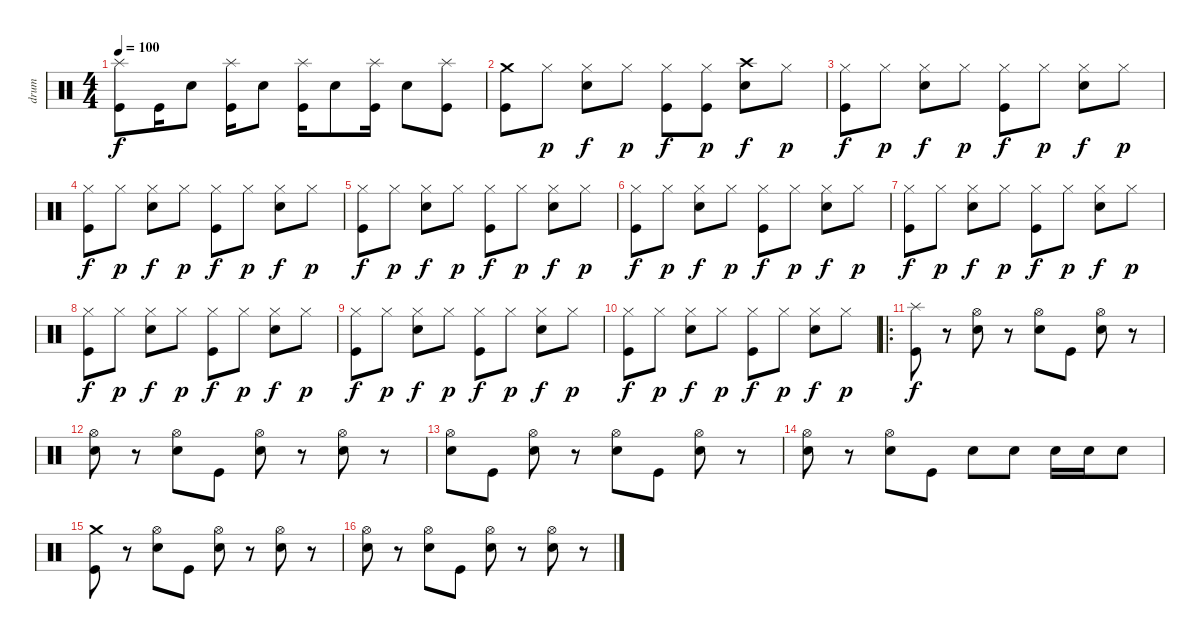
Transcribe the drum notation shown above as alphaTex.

\track ("drum" "drum") {instrument percussion}
\staff {score}
\articulation defaults
\ts (4 4)
\tempo 100
\clef neutral
\ks c
("Kick (hit)" "Splash (hit)").8{dy f} "Kick (hit)".16 "Electric Snare (hit)".8 ("Kick (hit)" "Splash (hit)").16 "Electric Snare (hit)".8 ("Kick (hit)" "Splash (hit)").16 "Electric Snare (hit)".8 ("Kick (hit)" "Splash (hit)").16 "Electric Snare (hit)".8 ("Kick (hit)" "Splash (hit)").8 |
("Kick (hit)" "Crash medium (hit)").8 "Hi-Hat (closed)".8{dy p} ("Electric Snare (hit)" "Hi-Hat (closed)").8{dy f} "Hi-Hat (closed)".8{dy p} ("Kick (hit)" "Hi-Hat (closed)").8{dy f} ("Kick (hit)" "Hi-Hat (closed)").8{dy p} ("Electric Snare (hit)" "Crash high (hit)").8{dy f} "Hi-Hat (closed)".8{dy p} |
("Kick (hit)" "Hi-Hat (closed)").8{dy f} "Hi-Hat (closed)".8{dy p} ("Electric Snare (hit)" "Hi-Hat (closed)").8{dy f} "Hi-Hat (closed)".8{dy p} ("Kick (hit)" "Hi-Hat (closed)").8{dy f} "Hi-Hat (closed)".8{dy p} ("Electric Snare (hit)" "Hi-Hat (closed)").8{dy f} "Hi-Hat (closed)".8{dy p} |
("Kick (hit)" "Hi-Hat (closed)").8{dy f} "Hi-Hat (closed)".8{dy p} ("Electric Snare (hit)" "Hi-Hat (closed)").8{dy f} "Hi-Hat (closed)".8{dy p} ("Kick (hit)" "Hi-Hat (closed)").8{dy f} "Hi-Hat (closed)".8{dy p} ("Electric Snare (hit)" "Hi-Hat (closed)").8{dy f} "Hi-Hat (closed)".8{dy p} |
("Kick (hit)" "Hi-Hat (closed)").8{dy f} "Hi-Hat (closed)".8{dy p} ("Electric Snare (hit)" "Hi-Hat (closed)").8{dy f} "Hi-Hat (closed)".8{dy p} ("Kick (hit)" "Hi-Hat (closed)").8{dy f} "Hi-Hat (closed)".8{dy p} ("Electric Snare (hit)" "Hi-Hat (closed)").8{dy f} "Hi-Hat (closed)".8{dy p} |
("Kick (hit)" "Hi-Hat (closed)").8{dy f} "Hi-Hat (closed)".8{dy p} ("Electric Snare (hit)" "Hi-Hat (closed)").8{dy f} "Hi-Hat (closed)".8{dy p} ("Kick (hit)" "Hi-Hat (closed)").8{dy f} "Hi-Hat (closed)".8{dy p} ("Electric Snare (hit)" "Hi-Hat (closed)").8{dy f} "Hi-Hat (closed)".8{dy p} |
("Kick (hit)" "Hi-Hat (closed)").8{dy f} "Hi-Hat (closed)".8{dy p} ("Electric Snare (hit)" "Hi-Hat (closed)").8{dy f} "Hi-Hat (closed)".8{dy p} ("Kick (hit)" "Hi-Hat (closed)").8{dy f} "Hi-Hat (closed)".8{dy p} ("Electric Snare (hit)" "Hi-Hat (closed)").8{dy f} "Hi-Hat (closed)".8{dy p} |
("Kick (hit)" "Hi-Hat (closed)").8{dy f} "Hi-Hat (closed)".8{dy p} ("Electric Snare (hit)" "Hi-Hat (closed)").8{dy f} "Hi-Hat (closed)".8{dy p} ("Kick (hit)" "Hi-Hat (closed)").8{dy f} "Hi-Hat (closed)".8{dy p} ("Electric Snare (hit)" "Hi-Hat (closed)").8{dy f} "Hi-Hat (closed)".8{dy p} |
("Kick (hit)" "Hi-Hat (closed)").8{dy f} "Hi-Hat (closed)".8{dy p} ("Electric Snare (hit)" "Hi-Hat (closed)").8{dy f} "Hi-Hat (closed)".8{dy p} ("Kick (hit)" "Hi-Hat (closed)").8{dy f} "Hi-Hat (closed)".8{dy p} ("Electric Snare (hit)" "Hi-Hat (closed)").8{dy f} "Hi-Hat (closed)".8{dy p} |
("Kick (hit)" "Hi-Hat (closed)").8{dy f} "Hi-Hat (closed)".8{dy p} ("Electric Snare (hit)" "Hi-Hat (closed)").8{dy f} "Hi-Hat (closed)".8{dy p} ("Kick (hit)" "Hi-Hat (closed)").8{dy f} "Hi-Hat (closed)".8{dy p} ("Electric Snare (hit)" "Hi-Hat (closed)").8{dy f} "Hi-Hat (closed)".8{dy p} |
\ro
("Kick (hit)" "Splash (hit)").8{dy f} r.8 ("Electric Snare (hit)" "Hi-Hat (open)").8 r.8 ("Electric Snare (hit)" "Hi-Hat (open)").8 "Kick (hit)".8 ("Electric Snare (hit)" "Hi-Hat (open)").8 r.8 |
("Electric Snare (hit)" "Hi-Hat (open)").8 r.8 ("Electric Snare (hit)" "Hi-Hat (open)").8 "Kick (hit)".8 ("Electric Snare (hit)" "Hi-Hat (open)").8 r.8 ("Electric Snare (hit)" "Hi-Hat (open)").8 r.8 |
("Electric Snare (hit)" "Hi-Hat (open)").8 "Kick (hit)".8 ("Electric Snare (hit)" "Hi-Hat (open)").8 r.8 ("Electric Snare (hit)" "Hi-Hat (open)").8 "Kick (hit)".8 ("Electric Snare (hit)" "Hi-Hat (open)").8 r.8 |
("Electric Snare (hit)" "Hi-Hat (open)").8 r.8 ("Electric Snare (hit)" "Hi-Hat (open)").8 "Kick (hit)".8 "Electric Snare (hit)".8 "Electric Snare (hit)".8 "Electric Snare (hit)".16 "Electric Snare (hit)".16 "Electric Snare (hit)".8 |
("Kick (hit)" "Crash medium (hit)").8 r.8 ("Electric Snare (hit)" "Hi-Hat (open)").8 "Kick (hit)".8 ("Electric Snare (hit)" "Hi-Hat (open)").8 r.8 ("Electric Snare (hit)" "Hi-Hat (open)").8 r.8 |
("Electric Snare (hit)" "Hi-Hat (open)").8 r.8 ("Electric Snare (hit)" "Hi-Hat (open)").8 "Kick (hit)".8 ("Electric Snare (hit)" "Hi-Hat (open)").8 r.8 ("Electric Snare (hit)" "Hi-Hat (open)").8 r.8
